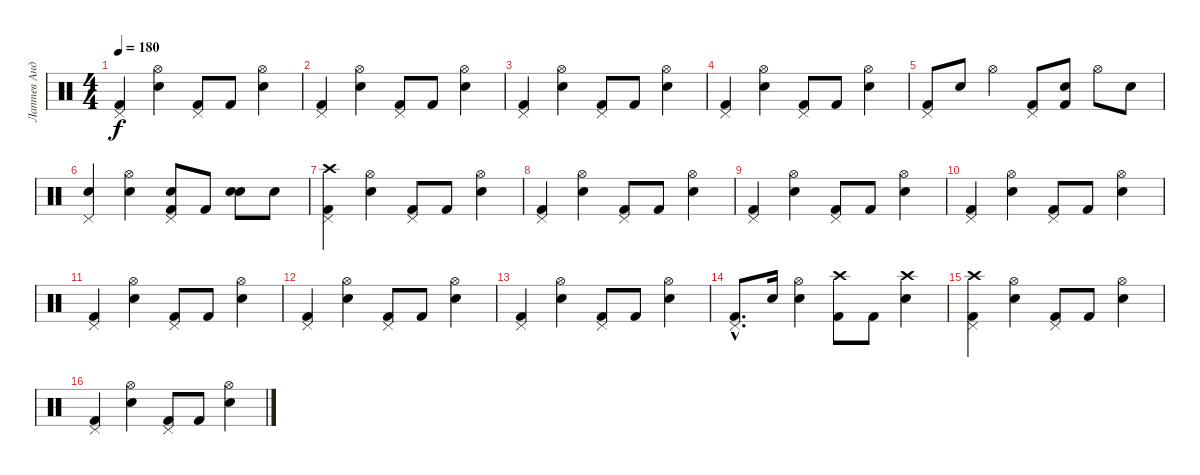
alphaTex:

\track ("Лаптев Андрей" "Лаптев Анд") {instrument percussion}
\staff {score}
\articulation defaults
\ts (4 4)
\tempo 180
\clef neutral
\ks c
("Kick (hit) 2" "Pedal Hi-Hat (hit)").4{dy f} ("Snare (hit) 2" "Hi-Hat (open)").4 ("Kick (hit) 2" "Pedal Hi-Hat (hit)").8 "Kick (hit) 2".8 ("Snare (hit) 2" "Hi-Hat (open)").4 |
("Kick (hit) 2" "Pedal Hi-Hat (hit)").4 ("Snare (hit) 2" "Hi-Hat (open)").4 ("Kick (hit) 2" "Pedal Hi-Hat (hit)").8 "Kick (hit) 2".8 ("Snare (hit) 2" "Hi-Hat (open)").4 |
("Kick (hit) 2" "Pedal Hi-Hat (hit)").4 ("Snare (hit) 2" "Hi-Hat (open)").4 ("Kick (hit) 2" "Pedal Hi-Hat (hit)").8 "Kick (hit) 2".8 ("Snare (hit) 2" "Hi-Hat (open)").4 |
("Kick (hit) 2" "Pedal Hi-Hat (hit)").4 ("Snare (hit) 2" "Hi-Hat (open)").4 ("Kick (hit) 2" "Pedal Hi-Hat (hit)").8 "Kick (hit) 2".8 ("Snare (hit) 2" "Hi-Hat (open)").4 |
("Kick (hit) 2" "Pedal Hi-Hat (hit)").8 "Snare (hit) 2".8 "Hi-Hat (open)".4 ("Kick (hit) 2" "Pedal Hi-Hat (hit)").8 ("Snare (hit) 2" "Kick (hit) 2").8 "Hi-Hat (open)".8 "Snare (hit) 2".8 |
("Snare (hit) 2" "Pedal Hi-Hat (hit)").4 ("Snare (hit) 2" "Hi-Hat (open)").4 ("Snare (hit) 2" "Kick (hit) 2" "Pedal Hi-Hat (hit)").8 "Kick (hit) 2".8 ("Snare (hit) 2" "Electric Snare (hit)").8 "Snare (hit) 2".8 |
("Kick (hit) 2" "Crash high (hit)" "Pedal Hi-Hat (hit)").4 ("Snare (hit) 2" "Hi-Hat (open)").4 ("Kick (hit) 2" "Pedal Hi-Hat (hit)").8 "Kick (hit) 2".8 ("Snare (hit) 2" "Hi-Hat (open)").4 |
("Kick (hit) 2" "Pedal Hi-Hat (hit)").4 ("Snare (hit) 2" "Hi-Hat (open)").4 ("Kick (hit) 2" "Pedal Hi-Hat (hit)").8 "Kick (hit) 2".8 ("Snare (hit) 2" "Hi-Hat (open)").4 |
("Kick (hit) 2" "Pedal Hi-Hat (hit)").4 ("Snare (hit) 2" "Hi-Hat (open)").4 ("Kick (hit) 2" "Pedal Hi-Hat (hit)").8 "Kick (hit) 2".8 ("Snare (hit) 2" "Hi-Hat (open)").4 |
("Kick (hit) 2" "Pedal Hi-Hat (hit)").4 ("Snare (hit) 2" "Hi-Hat (open)").4 ("Kick (hit) 2" "Pedal Hi-Hat (hit)").8 "Kick (hit) 2".8 ("Snare (hit) 2" "Hi-Hat (open)").4 |
("Kick (hit) 2" "Pedal Hi-Hat (hit)").4 ("Snare (hit) 2" "Hi-Hat (open)").4 ("Kick (hit) 2" "Pedal Hi-Hat (hit)").8 "Kick (hit) 2".8 ("Snare (hit) 2" "Hi-Hat (open)").4 |
("Kick (hit) 2" "Pedal Hi-Hat (hit)").4 ("Snare (hit) 2" "Hi-Hat (open)").4 ("Kick (hit) 2" "Pedal Hi-Hat (hit)").8 "Kick (hit) 2".8 ("Snare (hit) 2" "Hi-Hat (open)").4 |
("Kick (hit) 2" "Pedal Hi-Hat (hit)").4 ("Snare (hit) 2" "Hi-Hat (open)").4 ("Kick (hit) 2" "Pedal Hi-Hat (hit)").8 "Kick (hit) 2".8 ("Snare (hit) 2" "Hi-Hat (open)").4 |
("Kick (hit) 2"{hac} "Pedal Hi-Hat (hit)"{hac}).8{d} "Snare (hit) 2".16 ("Snare (hit) 2" "Hi-Hat (open)").4 ("Kick (hit) 2" "Crash high (hit)").8 "Kick (hit) 2".8 ("Snare (hit) 2" "Crash high (hit)").4 |
("Kick (hit) 2" "Crash high (hit)" "Pedal Hi-Hat (hit)").4 ("Snare (hit) 2" "Hi-Hat (open)").4 ("Kick (hit) 2" "Pedal Hi-Hat (hit)").8 "Kick (hit) 2".8 ("Snare (hit) 2" "Hi-Hat (open)").4 |
("Kick (hit) 2" "Pedal Hi-Hat (hit)").4 ("Snare (hit) 2" "Hi-Hat (open)").4 ("Kick (hit) 2" "Pedal Hi-Hat (hit)").8 "Kick (hit) 2".8 ("Snare (hit) 2" "Hi-Hat (open)").4
